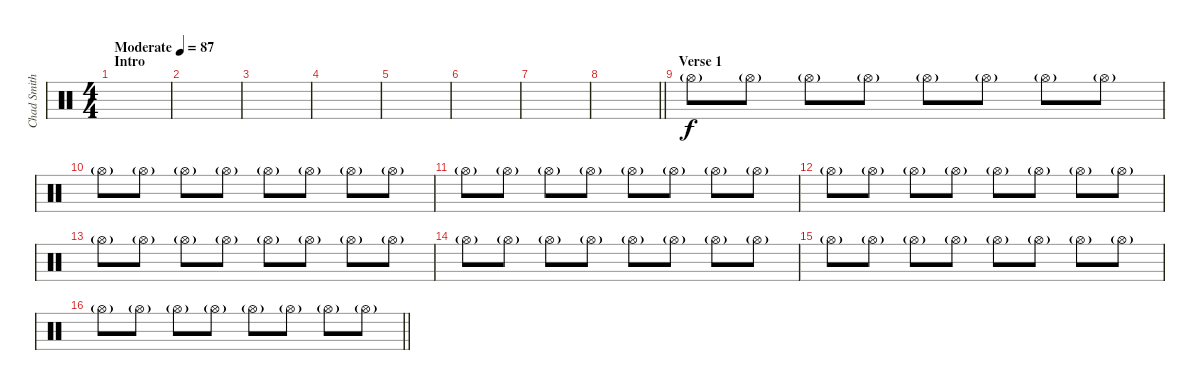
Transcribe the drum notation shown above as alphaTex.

\track ("Chad Smith" "Chad Smith") {instrument percussion}
\staff {score}
\articulation defaults
\ts (4 4)
\section ("" "Intro")
\tempo (87 "Moderate")
\clef neutral
\ks c
|
|
|
|
|
|
|
\barLineRight lightlight
|
\section ("" "Verse 1")
"Hi-Hat (open)"{g}.8 "Hi-Hat (open)"{g}.8 "Hi-Hat (open)"{g}.8 "Hi-Hat (open)"{g}.8 "Hi-Hat (open)"{g}.8 "Hi-Hat (open)"{g}.8 "Hi-Hat (open)"{g}.8 "Hi-Hat (open)"{g}.8 |
"Hi-Hat (open)"{g}.8 "Hi-Hat (open)"{g}.8 "Hi-Hat (open)"{g}.8 "Hi-Hat (open)"{g}.8 "Hi-Hat (open)"{g}.8 "Hi-Hat (open)"{g}.8 "Hi-Hat (open)"{g}.8 "Hi-Hat (open)"{g}.8 |
"Hi-Hat (open)"{g}.8 "Hi-Hat (open)"{g}.8 "Hi-Hat (open)"{g}.8 "Hi-Hat (open)"{g}.8 "Hi-Hat (open)"{g}.8 "Hi-Hat (open)"{g}.8 "Hi-Hat (open)"{g}.8 "Hi-Hat (open)"{g}.8 |
"Hi-Hat (open)"{g}.8 "Hi-Hat (open)"{g}.8 "Hi-Hat (open)"{g}.8 "Hi-Hat (open)"{g}.8 "Hi-Hat (open)"{g}.8 "Hi-Hat (open)"{g}.8 "Hi-Hat (open)"{g}.8 "Hi-Hat (open)"{g}.8 |
"Hi-Hat (open)"{g}.8 "Hi-Hat (open)"{g}.8 "Hi-Hat (open)"{g}.8 "Hi-Hat (open)"{g}.8 "Hi-Hat (open)"{g}.8 "Hi-Hat (open)"{g}.8 "Hi-Hat (open)"{g}.8 "Hi-Hat (open)"{g}.8 |
"Hi-Hat (open)"{g}.8 "Hi-Hat (open)"{g}.8 "Hi-Hat (open)"{g}.8 "Hi-Hat (open)"{g}.8 "Hi-Hat (open)"{g}.8 "Hi-Hat (open)"{g}.8 "Hi-Hat (open)"{g}.8 "Hi-Hat (open)"{g}.8 |
"Hi-Hat (open)"{g}.8 "Hi-Hat (open)"{g}.8 "Hi-Hat (open)"{g}.8 "Hi-Hat (open)"{g}.8 "Hi-Hat (open)"{g}.8 "Hi-Hat (open)"{g}.8 "Hi-Hat (open)"{g}.8 "Hi-Hat (open)"{g}.8 |
\barLineRight lightlight "Hi-Hat (open)"{g}.8 "Hi-Hat (open)"{g}.8 "Hi-Hat (open)"{g}.8 "Hi-Hat (open)"{g}.8 "Hi-Hat (open)"{g}.8 "Hi-Hat (open)"{g}.8 "Hi-Hat (open)"{g}.8 "Hi-Hat (open)"{g}.8
